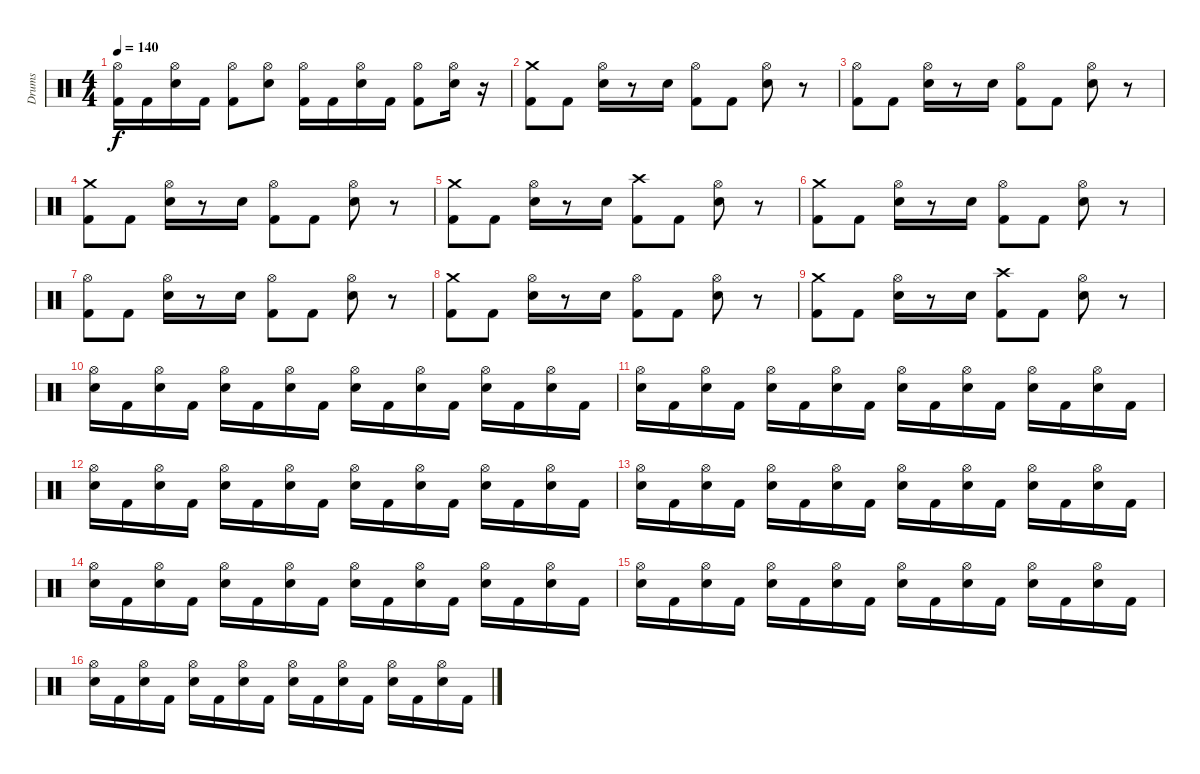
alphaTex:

\track ("Drums" "Drums") {instrument percussion}
\staff {score}
\articulation defaults
\ts (4 4)
\tempo 140
\clef neutral
\ks c
("Kick (hit) 2" "Hi-Hat (open)").16{dy f} "Kick (hit) 2".16 ("Electric Snare (hit)" "Hi-Hat (open)").16 "Kick (hit) 2".16 ("Kick (hit) 2" "Hi-Hat (open)").8 ("Electric Snare (hit)" "Hi-Hat (open)").8 ("Kick (hit) 2" "Hi-Hat (open)").16 "Kick (hit) 2".16 ("Electric Snare (hit)" "Hi-Hat (open)").16 "Kick (hit) 2".16 ("Kick (hit) 2" "Hi-Hat (open)").8 ("Electric Snare (hit)" "Hi-Hat (open)").16 r.16 |
("Kick (hit) 2" "Crash medium (hit)").8 "Kick (hit) 2".8 ("Electric Snare (hit)" "Hi-Hat (open)").16 r.8 "Electric Snare (hit)".16 ("Kick (hit) 2" "Hi-Hat (open)").8 "Kick (hit) 2".8 ("Electric Snare (hit)" "Hi-Hat (open)").8 r.8 |
("Kick (hit) 2" "Hi-Hat (open)").8 "Kick (hit) 2".8 ("Electric Snare (hit)" "Hi-Hat (open)").16 r.8 "Electric Snare (hit)".16 ("Kick (hit) 2" "Hi-Hat (open)").8 "Kick (hit) 2".8 ("Electric Snare (hit)" "Hi-Hat (open)").8 r.8 |
("Kick (hit) 2" "Crash medium (hit)").8 "Kick (hit) 2".8 ("Electric Snare (hit)" "Hi-Hat (open)").16 r.8 "Electric Snare (hit)".16 ("Kick (hit) 2" "Hi-Hat (open)").8 "Kick (hit) 2".8 ("Electric Snare (hit)" "Hi-Hat (open)").8 r.8 |
("Kick (hit) 2" "Crash medium (hit)").8 "Kick (hit) 2".8 ("Electric Snare (hit)" "Hi-Hat (open)").16 r.8 "Electric Snare (hit)".16 ("Kick (hit) 2" "Crash high (hit)").8 "Kick (hit) 2".8 ("Electric Snare (hit)" "Hi-Hat (open)").8 r.8 |
("Kick (hit) 2" "Crash medium (hit)").8 "Kick (hit) 2".8 ("Electric Snare (hit)" "Hi-Hat (open)").16 r.8 "Electric Snare (hit)".16 ("Kick (hit) 2" "Hi-Hat (open)").8 "Kick (hit) 2".8 ("Electric Snare (hit)" "Hi-Hat (open)").8 r.8 |
("Kick (hit) 2" "Hi-Hat (open)").8 "Kick (hit) 2".8 ("Electric Snare (hit)" "Hi-Hat (open)").16 r.8 "Electric Snare (hit)".16 ("Kick (hit) 2" "Hi-Hat (open)").8 "Kick (hit) 2".8 ("Electric Snare (hit)" "Hi-Hat (open)").8 r.8 |
("Kick (hit) 2" "Crash medium (hit)").8 "Kick (hit) 2".8 ("Electric Snare (hit)" "Hi-Hat (open)").16 r.8 "Electric Snare (hit)".16 ("Kick (hit) 2" "Hi-Hat (open)").8 "Kick (hit) 2".8 ("Electric Snare (hit)" "Hi-Hat (open)").8 r.8 |
("Kick (hit) 2" "Crash medium (hit)").8 "Kick (hit) 2".8 ("Electric Snare (hit)" "Hi-Hat (open)").16 r.8 "Electric Snare (hit)".16 ("Kick (hit) 2" "Crash high (hit)").8 "Kick (hit) 2".8 ("Electric Snare (hit)" "Hi-Hat (open)").8 r.8 |
("Electric Snare (hit)" "Hi-Hat (open)").16 "Kick (hit) 2".16 ("Electric Snare (hit)" "Hi-Hat (open)").16 "Kick (hit) 2".16 ("Electric Snare (hit)" "Hi-Hat (open)").16 "Kick (hit) 2".16 ("Electric Snare (hit)" "Hi-Hat (open)").16 "Kick (hit) 2".16 ("Electric Snare (hit)" "Hi-Hat (open)").16 "Kick (hit) 2".16 ("Electric Snare (hit)" "Hi-Hat (open)").16 "Kick (hit) 2".16 ("Electric Snare (hit)" "Hi-Hat (open)").16 "Kick (hit) 2".16 ("Electric Snare (hit)" "Hi-Hat (open)").16 "Kick (hit) 2".16 |
("Electric Snare (hit)" "Hi-Hat (open)").16 "Kick (hit) 2".16 ("Electric Snare (hit)" "Hi-Hat (open)").16 "Kick (hit) 2".16 ("Electric Snare (hit)" "Hi-Hat (open)").16 "Kick (hit) 2".16 ("Electric Snare (hit)" "Hi-Hat (open)").16 "Kick (hit) 2".16 ("Electric Snare (hit)" "Hi-Hat (open)").16 "Kick (hit) 2".16 ("Electric Snare (hit)" "Hi-Hat (open)").16 "Kick (hit) 2".16 ("Electric Snare (hit)" "Hi-Hat (open)").16 "Kick (hit) 2".16 ("Electric Snare (hit)" "Hi-Hat (open)").16 "Kick (hit) 2".16 |
("Electric Snare (hit)" "Hi-Hat (open)").16 "Kick (hit) 2".16 ("Electric Snare (hit)" "Hi-Hat (open)").16 "Kick (hit) 2".16 ("Electric Snare (hit)" "Hi-Hat (open)").16 "Kick (hit) 2".16 ("Electric Snare (hit)" "Hi-Hat (open)").16 "Kick (hit) 2".16 ("Electric Snare (hit)" "Hi-Hat (open)").16 "Kick (hit) 2".16 ("Electric Snare (hit)" "Hi-Hat (open)").16 "Kick (hit) 2".16 ("Electric Snare (hit)" "Hi-Hat (open)").16 "Kick (hit) 2".16 ("Electric Snare (hit)" "Hi-Hat (open)").16 "Kick (hit) 2".16 |
("Electric Snare (hit)" "Hi-Hat (open)").16 "Kick (hit) 2".16 ("Electric Snare (hit)" "Hi-Hat (open)").16 "Kick (hit) 2".16 ("Electric Snare (hit)" "Hi-Hat (open)").16 "Kick (hit) 2".16 ("Electric Snare (hit)" "Hi-Hat (open)").16 "Kick (hit) 2".16 ("Electric Snare (hit)" "Hi-Hat (open)").16 "Kick (hit) 2".16 ("Electric Snare (hit)" "Hi-Hat (open)").16 "Kick (hit) 2".16 ("Electric Snare (hit)" "Hi-Hat (open)").16 "Kick (hit) 2".16 ("Electric Snare (hit)" "Hi-Hat (open)").16 "Kick (hit) 2".16 |
("Electric Snare (hit)" "Hi-Hat (open)").16 "Kick (hit) 2".16 ("Electric Snare (hit)" "Hi-Hat (open)").16 "Kick (hit) 2".16 ("Electric Snare (hit)" "Hi-Hat (open)").16 "Kick (hit) 2".16 ("Electric Snare (hit)" "Hi-Hat (open)").16 "Kick (hit) 2".16 ("Electric Snare (hit)" "Hi-Hat (open)").16 "Kick (hit) 2".16 ("Electric Snare (hit)" "Hi-Hat (open)").16 "Kick (hit) 2".16 ("Electric Snare (hit)" "Hi-Hat (open)").16 "Kick (hit) 2".16 ("Electric Snare (hit)" "Hi-Hat (open)").16 "Kick (hit) 2".16 |
("Electric Snare (hit)" "Hi-Hat (open)").16 "Kick (hit) 2".16 ("Electric Snare (hit)" "Hi-Hat (open)").16 "Kick (hit) 2".16 ("Electric Snare (hit)" "Hi-Hat (open)").16 "Kick (hit) 2".16 ("Electric Snare (hit)" "Hi-Hat (open)").16 "Kick (hit) 2".16 ("Electric Snare (hit)" "Hi-Hat (open)").16 "Kick (hit) 2".16 ("Electric Snare (hit)" "Hi-Hat (open)").16 "Kick (hit) 2".16 ("Electric Snare (hit)" "Hi-Hat (open)").16 "Kick (hit) 2".16 ("Electric Snare (hit)" "Hi-Hat (open)").16 "Kick (hit) 2".16 |
("Electric Snare (hit)" "Hi-Hat (open)").16 "Kick (hit) 2".16 ("Electric Snare (hit)" "Hi-Hat (open)").16 "Kick (hit) 2".16 ("Electric Snare (hit)" "Hi-Hat (open)").16 "Kick (hit) 2".16 ("Electric Snare (hit)" "Hi-Hat (open)").16 "Kick (hit) 2".16 ("Electric Snare (hit)" "Hi-Hat (open)").16 "Kick (hit) 2".16 ("Electric Snare (hit)" "Hi-Hat (open)").16 "Kick (hit) 2".16 ("Electric Snare (hit)" "Hi-Hat (open)").16 "Kick (hit) 2".16 ("Electric Snare (hit)" "Hi-Hat (open)").16 "Kick (hit) 2".16
